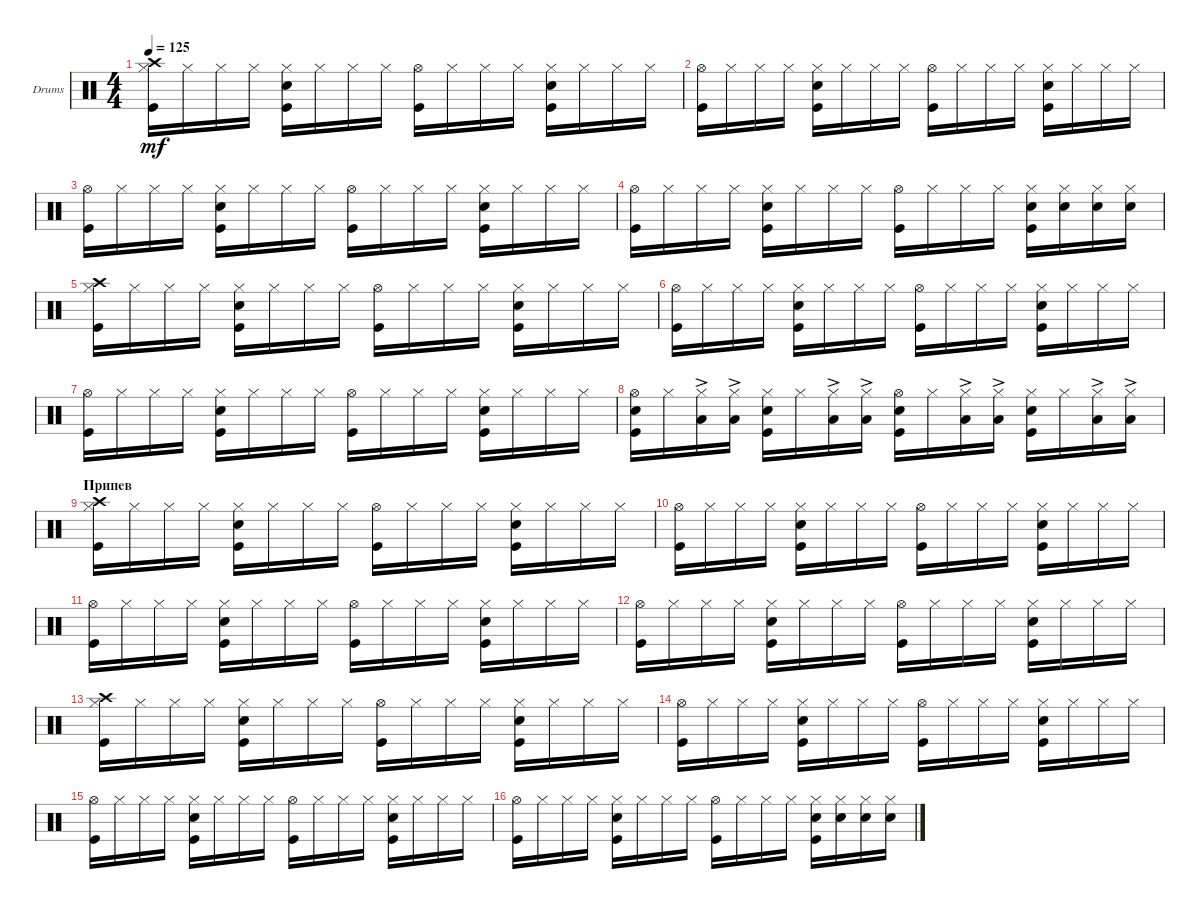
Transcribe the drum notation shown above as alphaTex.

\defaultSystemsLayout 4
\bracketExtendMode groupsimilarinstruments
\firstSystemTrackNameOrientation horizontal
\otherSystemsTrackNameOrientation horizontal
\track ("Drumkit" "Drums") {instrument percussion}
\staff {score}
\articulation defaults
\ts (4 4)
\tempo 125
\clef neutral
\ks c
("Hi-Hat (closed)" "Kick (hit)" "Crash high (hit)").16{dy mf} "Hi-Hat (closed)".16 "Hi-Hat (closed)".16 "Hi-Hat (closed)".16 ("Hi-Hat (closed)" "Kick (hit)" "Snare (hit) 2").16 "Hi-Hat (closed)".16 "Hi-Hat (closed)".16 "Hi-Hat (closed)".16 ("Hi-Hat (open)" "Kick (hit)").16 "Hi-Hat (closed)".16 "Hi-Hat (closed)".16 "Hi-Hat (closed)".16 ("Hi-Hat (closed)" "Kick (hit)" "Snare (hit) 2").16 "Hi-Hat (closed)".16 "Hi-Hat (closed)".16 "Hi-Hat (closed)".16 |
("Hi-Hat (open)" "Kick (hit)").16 "Hi-Hat (closed)".16 "Hi-Hat (closed)".16 "Hi-Hat (closed)".16 ("Hi-Hat (closed)" "Kick (hit)" "Snare (hit) 2").16 "Hi-Hat (closed)".16 "Hi-Hat (closed)".16 "Hi-Hat (closed)".16 ("Hi-Hat (open)" "Kick (hit)").16 "Hi-Hat (closed)".16 "Hi-Hat (closed)".16 "Hi-Hat (closed)".16 ("Hi-Hat (closed)" "Kick (hit)" "Snare (hit) 2").16 "Hi-Hat (closed)".16 "Hi-Hat (closed)".16 "Hi-Hat (closed)".16 |
("Hi-Hat (open)" "Kick (hit)").16 "Hi-Hat (closed)".16 "Hi-Hat (closed)".16 "Hi-Hat (closed)".16 ("Hi-Hat (closed)" "Kick (hit)" "Snare (hit) 2").16 "Hi-Hat (closed)".16 "Hi-Hat (closed)".16 "Hi-Hat (closed)".16 ("Hi-Hat (open)" "Kick (hit)").16 "Hi-Hat (closed)".16 "Hi-Hat (closed)".16 "Hi-Hat (closed)".16 ("Hi-Hat (closed)" "Kick (hit)" "Snare (hit) 2").16 "Hi-Hat (closed)".16 "Hi-Hat (closed)".16 "Hi-Hat (closed)".16 |
("Hi-Hat (open)" "Kick (hit)").16 "Hi-Hat (closed)".16 "Hi-Hat (closed)".16 "Hi-Hat (closed)".16 ("Hi-Hat (closed)" "Kick (hit)" "Snare (hit) 2").16 "Hi-Hat (closed)".16 "Hi-Hat (closed)".16 "Hi-Hat (closed)".16 ("Hi-Hat (open)" "Kick (hit)").16 "Hi-Hat (closed)".16 "Hi-Hat (closed)".16 "Hi-Hat (closed)".16 ("Hi-Hat (closed)" "Kick (hit)" "Snare (hit) 2").16 ("Hi-Hat (closed)" "Snare (hit) 2").16 ("Hi-Hat (closed)" "Snare (hit) 2").16 ("Hi-Hat (closed)" "Snare (hit) 2").16 |
("Hi-Hat (closed)" "Kick (hit)" "Crash high (hit)").16 "Hi-Hat (closed)".16 "Hi-Hat (closed)".16 "Hi-Hat (closed)".16 ("Hi-Hat (closed)" "Kick (hit)" "Snare (hit) 2").16 "Hi-Hat (closed)".16 "Hi-Hat (closed)".16 "Hi-Hat (closed)".16 ("Hi-Hat (open)" "Kick (hit)").16 "Hi-Hat (closed)".16 "Hi-Hat (closed)".16 "Hi-Hat (closed)".16 ("Hi-Hat (closed)" "Kick (hit)" "Snare (hit) 2").16 "Hi-Hat (closed)".16 "Hi-Hat (closed)".16 "Hi-Hat (closed)".16 |
("Hi-Hat (open)" "Kick (hit)").16 "Hi-Hat (closed)".16 "Hi-Hat (closed)".16 "Hi-Hat (closed)".16 ("Hi-Hat (closed)" "Kick (hit)" "Snare (hit) 2").16 "Hi-Hat (closed)".16 "Hi-Hat (closed)".16 "Hi-Hat (closed)".16 ("Hi-Hat (open)" "Kick (hit)").16 "Hi-Hat (closed)".16 "Hi-Hat (closed)".16 "Hi-Hat (closed)".16 ("Hi-Hat (closed)" "Kick (hit)" "Snare (hit) 2").16 "Hi-Hat (closed)".16 "Hi-Hat (closed)".16 "Hi-Hat (closed)".16 |
("Hi-Hat (open)" "Kick (hit)").16 "Hi-Hat (closed)".16 "Hi-Hat (closed)".16 "Hi-Hat (closed)".16 ("Hi-Hat (closed)" "Kick (hit)" "Snare (hit) 2").16 "Hi-Hat (closed)".16 "Hi-Hat (closed)".16 "Hi-Hat (closed)".16 ("Hi-Hat (open)" "Kick (hit)").16 "Hi-Hat (closed)".16 "Hi-Hat (closed)".16 "Hi-Hat (closed)".16 ("Hi-Hat (closed)" "Kick (hit)" "Snare (hit) 2").16 "Hi-Hat (closed)".16 "Hi-Hat (closed)".16 "Hi-Hat (closed)".16 |
("Hi-Hat (open)" "Kick (hit)" "Snare (hit) 2").16 "Hi-Hat (closed)".16 ("Hi-Hat (closed)" "Low Tom (hit)"{ac}).16 ("Hi-Hat (closed)" "Low Tom (hit)"{ac}).16 ("Hi-Hat (closed)" "Kick (hit)" "Snare (hit) 2").16 "Hi-Hat (closed)".16 ("Hi-Hat (closed)" "Low Tom (hit)"{ac}).16 ("Hi-Hat (closed)" "Low Tom (hit)"{ac}).16 ("Hi-Hat (open)" "Kick (hit)" "Snare (hit) 2").16 "Hi-Hat (closed)".16 ("Hi-Hat (closed)" "Low Tom (hit)"{ac}).16 ("Hi-Hat (closed)" "Low Tom (hit)"{ac}).16 ("Hi-Hat (closed)" "Kick (hit)" "Snare (hit) 2").16 "Hi-Hat (closed)".16 ("Hi-Hat (closed)" "Low Tom (hit)"{ac}).16 ("Hi-Hat (closed)" "Low Tom (hit)"{ac}).16 |
\section ("" "Припев")
("Hi-Hat (closed)" "Kick (hit)" "Crash high (hit)").16 "Hi-Hat (closed)".16 "Hi-Hat (closed)".16 "Hi-Hat (closed)".16 ("Hi-Hat (closed)" "Kick (hit)" "Snare (hit) 2").16 "Hi-Hat (closed)".16 "Hi-Hat (closed)".16 "Hi-Hat (closed)".16 ("Hi-Hat (open)" "Kick (hit)").16 "Hi-Hat (closed)".16 "Hi-Hat (closed)".16 "Hi-Hat (closed)".16 ("Hi-Hat (closed)" "Kick (hit)" "Snare (hit) 2").16 "Hi-Hat (closed)".16 "Hi-Hat (closed)".16 "Hi-Hat (closed)".16 |
("Hi-Hat (open)" "Kick (hit)").16 "Hi-Hat (closed)".16 "Hi-Hat (closed)".16 "Hi-Hat (closed)".16 ("Hi-Hat (closed)" "Kick (hit)" "Snare (hit) 2").16 "Hi-Hat (closed)".16 "Hi-Hat (closed)".16 "Hi-Hat (closed)".16 ("Hi-Hat (open)" "Kick (hit)").16 "Hi-Hat (closed)".16 "Hi-Hat (closed)".16 "Hi-Hat (closed)".16 ("Hi-Hat (closed)" "Kick (hit)" "Snare (hit) 2").16 "Hi-Hat (closed)".16 "Hi-Hat (closed)".16 "Hi-Hat (closed)".16 |
("Hi-Hat (open)" "Kick (hit)").16 "Hi-Hat (closed)".16 "Hi-Hat (closed)".16 "Hi-Hat (closed)".16 ("Hi-Hat (closed)" "Kick (hit)" "Snare (hit) 2").16 "Hi-Hat (closed)".16 "Hi-Hat (closed)".16 "Hi-Hat (closed)".16 ("Hi-Hat (open)" "Kick (hit)").16 "Hi-Hat (closed)".16 "Hi-Hat (closed)".16 "Hi-Hat (closed)".16 ("Hi-Hat (closed)" "Kick (hit)" "Snare (hit) 2").16 "Hi-Hat (closed)".16 "Hi-Hat (closed)".16 "Hi-Hat (closed)".16 |
("Hi-Hat (open)" "Kick (hit)").16 "Hi-Hat (closed)".16 "Hi-Hat (closed)".16 "Hi-Hat (closed)".16 ("Hi-Hat (closed)" "Kick (hit)" "Snare (hit) 2").16 "Hi-Hat (closed)".16 "Hi-Hat (closed)".16 "Hi-Hat (closed)".16 ("Hi-Hat (open)" "Kick (hit)").16 "Hi-Hat (closed)".16 "Hi-Hat (closed)".16 "Hi-Hat (closed)".16 ("Hi-Hat (closed)" "Kick (hit)" "Snare (hit) 2").16 "Hi-Hat (closed)".16 "Hi-Hat (closed)".16 "Hi-Hat (closed)".16 |
("Hi-Hat (closed)" "Kick (hit)" "Crash high (hit)").16 "Hi-Hat (closed)".16 "Hi-Hat (closed)".16 "Hi-Hat (closed)".16 ("Hi-Hat (closed)" "Kick (hit)" "Snare (hit) 2").16 "Hi-Hat (closed)".16 "Hi-Hat (closed)".16 "Hi-Hat (closed)".16 ("Hi-Hat (open)" "Kick (hit)").16 "Hi-Hat (closed)".16 "Hi-Hat (closed)".16 "Hi-Hat (closed)".16 ("Hi-Hat (closed)" "Kick (hit)" "Snare (hit) 2").16 "Hi-Hat (closed)".16 "Hi-Hat (closed)".16 "Hi-Hat (closed)".16 |
("Hi-Hat (open)" "Kick (hit)").16 "Hi-Hat (closed)".16 "Hi-Hat (closed)".16 "Hi-Hat (closed)".16 ("Hi-Hat (closed)" "Kick (hit)" "Snare (hit) 2").16 "Hi-Hat (closed)".16 "Hi-Hat (closed)".16 "Hi-Hat (closed)".16 ("Hi-Hat (open)" "Kick (hit)").16 "Hi-Hat (closed)".16 "Hi-Hat (closed)".16 "Hi-Hat (closed)".16 ("Hi-Hat (closed)" "Kick (hit)" "Snare (hit) 2").16 "Hi-Hat (closed)".16 "Hi-Hat (closed)".16 "Hi-Hat (closed)".16 |
("Hi-Hat (open)" "Kick (hit)").16 "Hi-Hat (closed)".16 "Hi-Hat (closed)".16 "Hi-Hat (closed)".16 ("Hi-Hat (closed)" "Kick (hit)" "Snare (hit) 2").16 "Hi-Hat (closed)".16 "Hi-Hat (closed)".16 "Hi-Hat (closed)".16 ("Hi-Hat (open)" "Kick (hit)").16 "Hi-Hat (closed)".16 "Hi-Hat (closed)".16 "Hi-Hat (closed)".16 ("Hi-Hat (closed)" "Kick (hit)" "Snare (hit) 2").16 "Hi-Hat (closed)".16 "Hi-Hat (closed)".16 "Hi-Hat (closed)".16 |
("Hi-Hat (open)" "Kick (hit)").16 "Hi-Hat (closed)".16 "Hi-Hat (closed)".16 "Hi-Hat (closed)".16 ("Hi-Hat (closed)" "Kick (hit)" "Snare (hit) 2").16 "Hi-Hat (closed)".16 "Hi-Hat (closed)".16 "Hi-Hat (closed)".16 ("Hi-Hat (open)" "Kick (hit)").16 "Hi-Hat (closed)".16 "Hi-Hat (closed)".16 "Hi-Hat (closed)".16 ("Hi-Hat (closed)" "Kick (hit)" "Snare (hit) 2").16 ("Hi-Hat (closed)" "Snare (hit) 2").16 ("Hi-Hat (closed)" "Snare (hit) 2").16 ("Hi-Hat (closed)" "Snare (hit) 2").16
